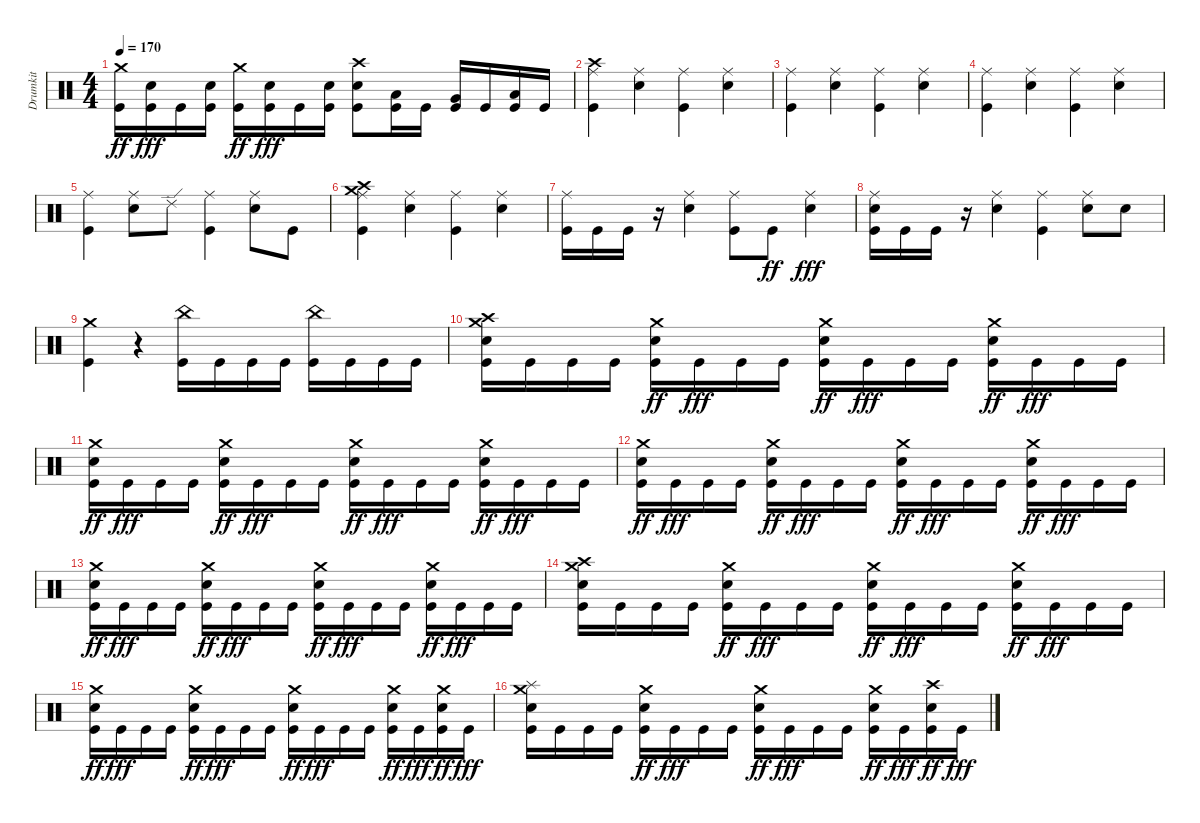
\track ("Drumkit" "Drumkit") {instrument percussion}
\staff {score}
\articulation defaults
\ts (4 4)
\tempo 170
\clef neutral
\ks c
("Crash medium (hit)" "Kick (hit)").16{dy ff} ("Snare (hit) 2" "Kick (hit)").16{dy fff} "Kick (hit)".16 ("Snare (hit) 2" "Kick (hit)").16 ("Crash medium (hit)" "Kick (hit)").16{dy ff} ("Snare (hit) 2" "Kick (hit)").16{dy fff} "Kick (hit)".16 ("Snare (hit) 2" "Kick (hit)").16 ("Crash high (hit)" "Snare (hit) 2" "Kick (hit)").8 ("Low Tom (hit)" "Kick (hit)").16 "Kick (hit)".16 ("Very Low Tom (hit)" "Kick (hit)").16 "Kick (hit)".16 ("Low Floor Tom (hit)" "Kick (hit)").16 "Kick (hit)".16 |
("Ride (middle)" "Crash high (hit)" "Kick (hit)").4 ("Ride (middle)" "Snare (hit) 2").4 ("Ride (middle)" "Kick (hit)").4 ("Ride (middle)" "Snare (hit) 2").4 |
("Ride (middle)" "Kick (hit)").4 ("Ride (middle)" "Snare (hit) 2").4 ("Ride (middle)" "Kick (hit)").4 ("Ride (middle)" "Snare (hit) 2").4 |
("Ride (middle)" "Kick (hit)").4 ("Ride (middle)" "Snare (hit) 2").4 ("Ride (middle)" "Kick (hit)").4 ("Ride (middle)" "Snare (hit) 2").4 |
("Ride (middle)" "Kick (hit)").4 ("Ride (middle)" "Snare (hit) 2").8 "Ride (edge) 2".8 ("Ride (middle)" "Kick (hit)").4 ("Ride (middle)" "Snare (hit) 2").8 "Kick (hit)".8 |
("Ride (middle)" "Crash high (hit)" "Crash medium (hit)" "Kick (hit)").4 ("Ride (middle)" "Snare (hit) 2").4 ("Ride (middle)" "Kick (hit)").4 ("Ride (middle)" "Snare (hit) 2").4 |
("Ride (middle)" "Kick (hit)").16 "Kick (hit)".16 "Kick (hit)".16 r.16 ("Ride (middle)" "Snare (hit) 2").4 ("Ride (middle)" "Kick (hit)").8 "Kick (hit)".8{dy ff} ("Ride (middle)" "Snare (hit) 2").4{dy fff} |
("Ride (middle)" "Snare (hit) 2" "Kick (hit)").16 "Kick (hit)".16 "Kick (hit)".16 r.16 ("Ride (middle)" "Snare (hit) 2").4 ("Ride (middle)" "Kick (hit)").4 ("Ride (middle)" "Snare (hit) 2").8 "Snare (hit) 2".8 |
("Crash medium (hit)" "Kick (hit)").4 r.4 ("China (hit)" "Kick (hit)").16 "Kick (hit)".16 "Kick (hit)".16 "Kick (hit)".16 ("China (hit)" "Kick (hit)").16 "Kick (hit)".16 "Kick (hit)".16 "Kick (hit)".16 |
("Crash high (hit)" "Crash medium (hit)" "Snare (hit) 2" "Kick (hit)").16 "Kick (hit)".16 "Kick (hit)".16 "Kick (hit)".16 ("Crash medium (hit)" "Snare (hit) 2" "Kick (hit)").16{dy ff} "Kick (hit)".16{dy fff} "Kick (hit)".16 "Kick (hit)".16 ("Crash medium (hit)" "Snare (hit) 2" "Kick (hit)").16{dy ff} "Kick (hit)".16{dy fff} "Kick (hit)".16 "Kick (hit)".16 ("Crash medium (hit)" "Snare (hit) 2" "Kick (hit)").16{dy ff} "Kick (hit)".16{dy fff} "Kick (hit)".16 "Kick (hit)".16 |
("Crash medium (hit)" "Snare (hit) 2" "Kick (hit)").16{dy ff} "Kick (hit)".16{dy fff} "Kick (hit)".16 "Kick (hit)".16 ("Crash medium (hit)" "Snare (hit) 2" "Kick (hit)").16{dy ff} "Kick (hit)".16{dy fff} "Kick (hit)".16 "Kick (hit)".16 ("Crash medium (hit)" "Snare (hit) 2" "Kick (hit)").16{dy ff} "Kick (hit)".16{dy fff} "Kick (hit)".16 "Kick (hit)".16 ("Crash medium (hit)" "Snare (hit) 2" "Kick (hit)").16{dy ff} "Kick (hit)".16{dy fff} "Kick (hit)".16 "Kick (hit)".16 |
("Crash medium (hit)" "Snare (hit) 2" "Kick (hit)").16{dy ff} "Kick (hit)".16{dy fff} "Kick (hit)".16 "Kick (hit)".16 ("Crash medium (hit)" "Snare (hit) 2" "Kick (hit)").16{dy ff} "Kick (hit)".16{dy fff} "Kick (hit)".16 "Kick (hit)".16 ("Crash medium (hit)" "Snare (hit) 2" "Kick (hit)").16{dy ff} "Kick (hit)".16{dy fff} "Kick (hit)".16 "Kick (hit)".16 ("Crash medium (hit)" "Snare (hit) 2" "Kick (hit)").16{dy ff} "Kick (hit)".16{dy fff} "Kick (hit)".16 "Kick (hit)".16 |
("Crash medium (hit)" "Snare (hit) 2" "Kick (hit)").16{dy ff} "Kick (hit)".16{dy fff} "Kick (hit)".16 "Kick (hit)".16 ("Crash medium (hit)" "Snare (hit) 2" "Kick (hit)").16{dy ff} "Kick (hit)".16{dy fff} "Kick (hit)".16 "Kick (hit)".16 ("Crash medium (hit)" "Snare (hit) 2" "Kick (hit)").16{dy ff} "Kick (hit)".16{dy fff} "Kick (hit)".16 "Kick (hit)".16 ("Crash medium (hit)" "Snare (hit) 2" "Kick (hit)").16{dy ff} "Kick (hit)".16{dy fff} "Kick (hit)".16 "Kick (hit)".16 |
("Crash high (hit)" "Crash medium (hit)" "Snare (hit) 2" "Kick (hit)").16 "Kick (hit)".16 "Kick (hit)".16 "Kick (hit)".16 ("Crash medium (hit)" "Snare (hit) 2" "Kick (hit)").16{dy ff} "Kick (hit)".16{dy fff} "Kick (hit)".16 "Kick (hit)".16 ("Crash medium (hit)" "Snare (hit) 2" "Kick (hit)").16{dy ff} "Kick (hit)".16{dy fff} "Kick (hit)".16 "Kick (hit)".16 ("Crash medium (hit)" "Snare (hit) 2" "Kick (hit)").16{dy ff} "Kick (hit)".16{dy fff} "Kick (hit)".16 "Kick (hit)".16 |
("Crash medium (hit)" "Snare (hit) 2" "Kick (hit)").16{dy ff} "Kick (hit)".16{dy fff} "Kick (hit)".16 "Kick (hit)".16 ("Crash medium (hit)" "Snare (hit) 2" "Kick (hit)").16{dy ff} "Kick (hit)".16{dy fff} "Kick (hit)".16 "Kick (hit)".16 ("Crash medium (hit)" "Snare (hit) 2" "Kick (hit)").16{dy ff} "Kick (hit)".16{dy fff} "Kick (hit)".16 "Kick (hit)".16 ("Crash medium (hit)" "Snare (hit) 2" "Kick (hit)").16{dy ff} "Kick (hit)".16{dy fff} ("Crash medium (hit)" "Snare (hit) 2" "Kick (hit)").16{dy ff} "Kick (hit)".16{dy fff} |
("Splash (hit)" "Crash medium (hit)" "Snare (hit) 2" "Kick (hit)").16 "Kick (hit)".16 "Kick (hit)".16 "Kick (hit)".16 ("Crash medium (hit)" "Snare (hit) 2" "Kick (hit)").16{dy ff} "Kick (hit)".16{dy fff} "Kick (hit)".16 "Kick (hit)".16 ("Crash medium (hit)" "Snare (hit) 2" "Kick (hit)").16{dy ff} "Kick (hit)".16{dy fff} "Kick (hit)".16 "Kick (hit)".16 ("Crash medium (hit)" "Snare (hit) 2" "Kick (hit)").16{dy ff} "Kick (hit)".16{dy fff} ("Crash high (hit)" "Snare (hit) 2" "Kick (hit)").16{dy ff} "Kick (hit)".16{dy fff}
